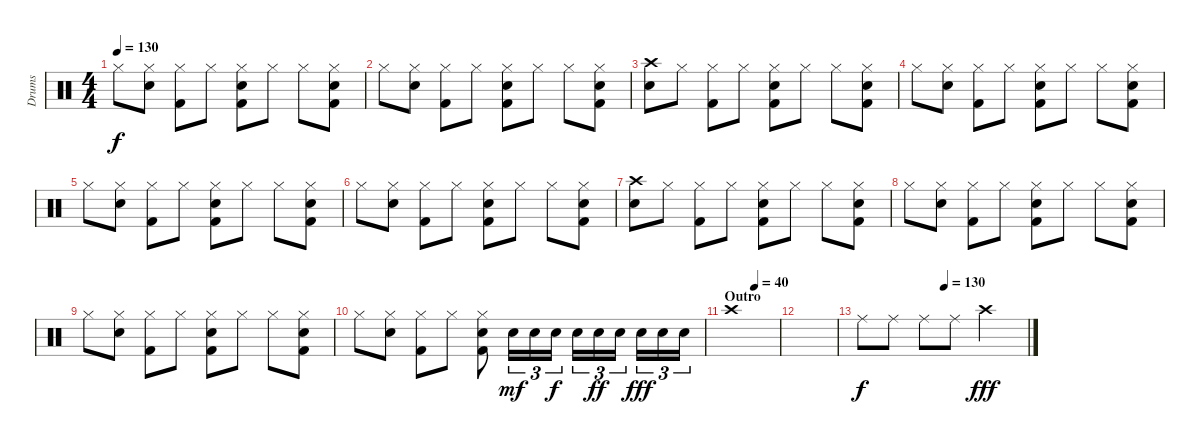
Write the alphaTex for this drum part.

\track ("Drums" "Drums") {instrument percussion}
\staff {score}
\articulation defaults
\ts (4 4)
\tempo 130
\clef neutral
\ks c "Hi-Hat (closed)".8{dy f}
("Hi-Hat (closed)" "Electric Snare (hit)").8 ("Hi-Hat (closed)" "Kick (hit) 2").8 "Hi-Hat (closed)".8 ("Hi-Hat (closed)" "Electric Snare (hit)" "Kick (hit) 2").8 "Hi-Hat (closed)".8 "Hi-Hat (closed)".8 ("Hi-Hat (closed)" "Electric Snare (hit)" "Kick (hit) 2").8 |
"Hi-Hat (closed)".8 ("Hi-Hat (closed)" "Electric Snare (hit)").8 ("Hi-Hat (closed)" "Kick (hit) 2").8 "Hi-Hat (closed)".8 ("Hi-Hat (closed)" "Electric Snare (hit)" "Kick (hit) 2").8 "Hi-Hat (closed)".8 "Hi-Hat (closed)".8 ("Hi-Hat (closed)" "Electric Snare (hit)" "Kick (hit) 2").8 |
("Crash high (hit)" "Electric Snare (hit)").8 "Hi-Hat (closed)".8 ("Hi-Hat (closed)" "Kick (hit) 2").8 "Hi-Hat (closed)".8 ("Hi-Hat (closed)" "Electric Snare (hit)" "Kick (hit) 2").8 "Hi-Hat (closed)".8 "Hi-Hat (closed)".8 ("Hi-Hat (closed)" "Electric Snare (hit)" "Kick (hit) 2").8 |
"Hi-Hat (closed)".8 ("Hi-Hat (closed)" "Electric Snare (hit)").8 ("Hi-Hat (closed)" "Kick (hit) 2").8 "Hi-Hat (closed)".8 ("Hi-Hat (closed)" "Electric Snare (hit)" "Kick (hit) 2").8 "Hi-Hat (closed)".8 "Hi-Hat (closed)".8 ("Hi-Hat (closed)" "Electric Snare (hit)" "Kick (hit) 2").8 |
"Hi-Hat (closed)".8 ("Hi-Hat (closed)" "Electric Snare (hit)").8 ("Hi-Hat (closed)" "Kick (hit) 2").8 "Hi-Hat (closed)".8 ("Hi-Hat (closed)" "Electric Snare (hit)" "Kick (hit) 2").8 "Hi-Hat (closed)".8 "Hi-Hat (closed)".8 ("Hi-Hat (closed)" "Electric Snare (hit)" "Kick (hit) 2").8 |
"Hi-Hat (closed)".8 ("Hi-Hat (closed)" "Electric Snare (hit)").8 ("Hi-Hat (closed)" "Kick (hit) 2").8 "Hi-Hat (closed)".8 ("Hi-Hat (closed)" "Electric Snare (hit)" "Kick (hit) 2").8 "Hi-Hat (closed)".8 "Hi-Hat (closed)".8 ("Hi-Hat (closed)" "Electric Snare (hit)" "Kick (hit) 2").8 |
("Crash high (hit)" "Electric Snare (hit)").8 "Hi-Hat (closed)".8 ("Hi-Hat (closed)" "Kick (hit) 2").8 "Hi-Hat (closed)".8 ("Hi-Hat (closed)" "Electric Snare (hit)" "Kick (hit) 2").8 "Hi-Hat (closed)".8 "Hi-Hat (closed)".8 ("Hi-Hat (closed)" "Electric Snare (hit)" "Kick (hit) 2").8 |
"Hi-Hat (closed)".8 ("Hi-Hat (closed)" "Electric Snare (hit)").8 ("Hi-Hat (closed)" "Kick (hit) 2").8 "Hi-Hat (closed)".8 ("Hi-Hat (closed)" "Electric Snare (hit)" "Kick (hit) 2").8 "Hi-Hat (closed)".8 "Hi-Hat (closed)".8 ("Hi-Hat (closed)" "Electric Snare (hit)" "Kick (hit) 2").8 |
"Hi-Hat (closed)".8 ("Hi-Hat (closed)" "Electric Snare (hit)").8 ("Hi-Hat (closed)" "Kick (hit) 2").8 "Hi-Hat (closed)".8 ("Hi-Hat (closed)" "Electric Snare (hit)" "Kick (hit) 2").8 "Hi-Hat (closed)".8 "Hi-Hat (closed)".8 ("Hi-Hat (closed)" "Electric Snare (hit)" "Kick (hit) 2").8 |
"Hi-Hat (closed)".8 ("Hi-Hat (closed)" "Electric Snare (hit)").8 ("Hi-Hat (closed)" "Kick (hit) 2").8 "Hi-Hat (closed)".8 ("Hi-Hat (closed)" "Electric Snare (hit)" "Kick (hit) 2").8 "Electric Snare (hit)".16{tu (3 2) dy mf} "Electric Snare (hit)".16{tu (3 2)} "Electric Snare (hit)".16{tu (3 2) dy f} "Electric Snare (hit)".16{tu (3 2)} "Electric Snare (hit)".16{tu (3 2) dy ff} "Electric Snare (hit)".16{tu (3 2)} "Electric Snare (hit)".16{tu (3 2) dy fff} "Electric Snare (hit)".16{tu (3 2)} "Electric Snare (hit)".16{tu (3 2)} |
\section ("" "Outro")
\tempo (40 0.5)
"Crash high (hit)".1 |
|
\tempo (130 0.5)
"Ride (middle)".8{dy f} "Ride (middle)".8 "Ride (middle)".8 "Ride (middle)".8 "Crash high (hit)".2{dy fff volume 16}
